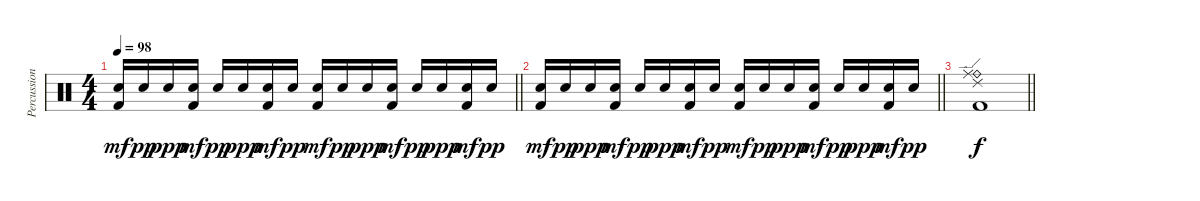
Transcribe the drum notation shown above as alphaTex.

\track ("Percussion" "Percussion") {instrument percussion}
\staff {score}
\articulation defaults
\ts (4 4)
\tempo 98
\clef neutral
\barLineRight lightlight
\ks c
("Snare (hit) 2" "Kick (hit) 2").16{dy mf} "Snare (hit) 2".16{dy pp} "Snare (hit) 2".16{dy ppp} ("Snare (hit) 2" "Kick (hit) 2").16{dy mf} "Snare (hit) 2".16{dy pp} "Snare (hit) 2".16{dy ppp} ("Snare (hit) 2" "Kick (hit) 2").16{dy mf} "Snare (hit) 2".16{dy pp} ("Snare (hit) 2" "Kick (hit) 2").16{dy mf} "Snare (hit) 2".16{dy pp} "Snare (hit) 2".16{dy ppp} ("Snare (hit) 2" "Kick (hit) 2").16{dy mf} "Snare (hit) 2".16{dy pp} "Snare (hit) 2".16{dy ppp} ("Snare (hit) 2" "Kick (hit) 2").16{dy mf} "Snare (hit) 2".16{dy pp} |
\barLineRight lightlight
("Snare (hit) 2" "Kick (hit) 2").16{dy mf} "Snare (hit) 2".16{dy pp} "Snare (hit) 2".16{dy ppp} ("Snare (hit) 2" "Kick (hit) 2").16{dy mf} "Snare (hit) 2".16{dy pp} "Snare (hit) 2".16{dy ppp} ("Snare (hit) 2" "Kick (hit) 2").16{dy mf} "Snare (hit) 2".16{dy pp} ("Snare (hit) 2" "Kick (hit) 2").16{dy mf} "Snare (hit) 2".16{dy pp} "Snare (hit) 2".16{dy ppp} ("Snare (hit) 2" "Kick (hit) 2").16{dy mf} "Snare (hit) 2".16{dy pp} "Snare (hit) 2".16{dy ppp} ("Snare (hit) 2" "Kick (hit) 2").16{dy mf} "Snare (hit) 2".16{dy pp} |
\barLineRight lightlight
("Ride (edge) 2" "Ride (bell)" "Ride (middle)" "Kick (hit) 2").1{dy f}
